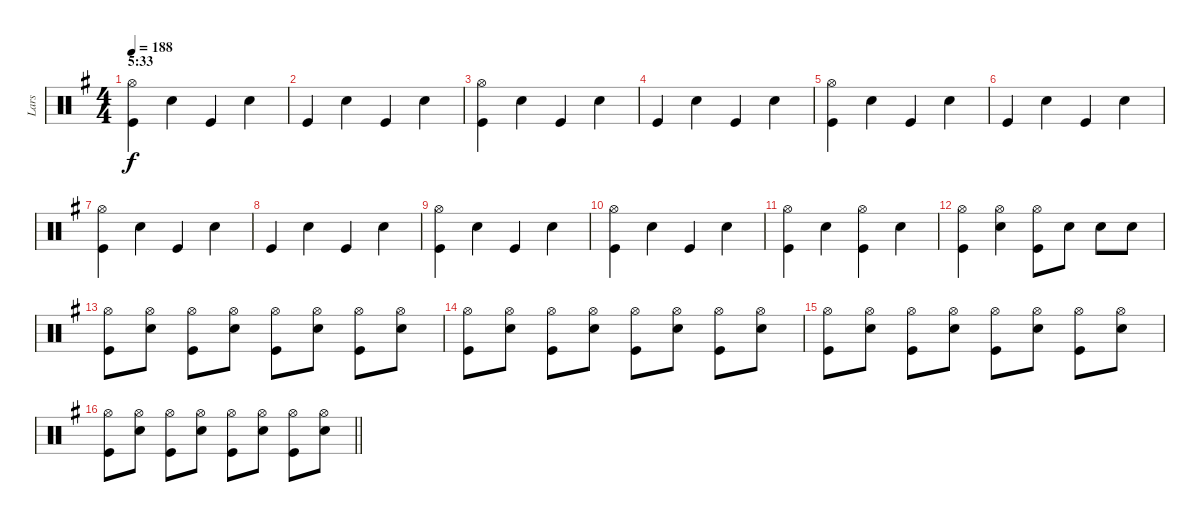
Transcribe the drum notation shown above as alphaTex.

\track ("Lars" "Lars") {instrument percussion}
\staff {score}
\articulation defaults
\ts (4 4)
\section ("" "5:33")
\tempo 188
\clef neutral
\ks eminor
("Hi-Hat (open)" "Kick (hit)").4{dy f} "Snare (hit) 2".4 "Kick (hit)".4 "Snare (hit) 2".4 |
"Kick (hit)".4 "Snare (hit) 2".4 "Kick (hit)".4 "Snare (hit) 2".4 |
("Hi-Hat (open)" "Kick (hit)").4 "Snare (hit) 2".4 "Kick (hit)".4 "Snare (hit) 2".4 |
"Kick (hit)".4 "Snare (hit) 2".4 "Kick (hit)".4 "Snare (hit) 2".4 |
("Hi-Hat (open)" "Kick (hit)").4 "Snare (hit) 2".4 "Kick (hit)".4 "Snare (hit) 2".4 |
"Kick (hit)".4 "Snare (hit) 2".4 "Kick (hit)".4 "Snare (hit) 2".4 |
("Hi-Hat (open)" "Kick (hit)").4 "Snare (hit) 2".4 "Kick (hit)".4 "Snare (hit) 2".4 |
"Kick (hit)".4 "Snare (hit) 2".4 "Kick (hit)".4 "Snare (hit) 2".4 |
("Hi-Hat (open)" "Kick (hit)").4 "Snare (hit) 2".4 "Kick (hit)".4 "Snare (hit) 2".4 |
("Hi-Hat (open)" "Kick (hit)").4 "Snare (hit) 2".4 "Kick (hit)".4 "Snare (hit) 2".4 |
("Hi-Hat (open)" "Kick (hit)").4 "Snare (hit) 2".4 ("Hi-Hat (open)" "Kick (hit)").4 "Snare (hit) 2".4 |
("Hi-Hat (open)" "Kick (hit)").4 ("Hi-Hat (open)" "Snare (hit) 2").4 ("Hi-Hat (open)" "Kick (hit)").8 "Snare (hit) 2".8 "Snare (hit) 2".8 "Snare (hit) 2".8 |
("Hi-Hat (open)" "Kick (hit)").8 ("Hi-Hat (open)" "Snare (hit) 2").8 ("Hi-Hat (open)" "Kick (hit)").8 ("Hi-Hat (open)" "Snare (hit) 2").8 ("Hi-Hat (open)" "Kick (hit)").8 ("Hi-Hat (open)" "Snare (hit) 2").8 ("Hi-Hat (open)" "Kick (hit)").8 ("Hi-Hat (open)" "Snare (hit) 2").8 |
("Hi-Hat (open)" "Kick (hit)").8 ("Hi-Hat (open)" "Snare (hit) 2").8 ("Hi-Hat (open)" "Kick (hit)").8 ("Hi-Hat (open)" "Snare (hit) 2").8 ("Hi-Hat (open)" "Kick (hit)").8 ("Hi-Hat (open)" "Snare (hit) 2").8 ("Hi-Hat (open)" "Kick (hit)").8 ("Snare (hit) 2" "Hi-Hat (open)").8 |
("Hi-Hat (open)" "Kick (hit)").8 ("Hi-Hat (open)" "Snare (hit) 2").8 ("Hi-Hat (open)" "Kick (hit)").8 ("Hi-Hat (open)" "Snare (hit) 2").8 ("Hi-Hat (open)" "Kick (hit)").8 ("Hi-Hat (open)" "Snare (hit) 2").8 ("Hi-Hat (open)" "Kick (hit)").8 ("Snare (hit) 2" "Hi-Hat (open)").8 |
\barLineRight lightlight
("Hi-Hat (open)" "Kick (hit)").8 ("Hi-Hat (open)" "Snare (hit) 2").8 ("Hi-Hat (open)" "Kick (hit)").8 ("Hi-Hat (open)" "Snare (hit) 2").8 ("Hi-Hat (open)" "Kick (hit)").8 ("Hi-Hat (open)" "Snare (hit) 2").8 ("Hi-Hat (open)" "Kick (hit)").8 ("Snare (hit) 2" "Hi-Hat (open)").8
